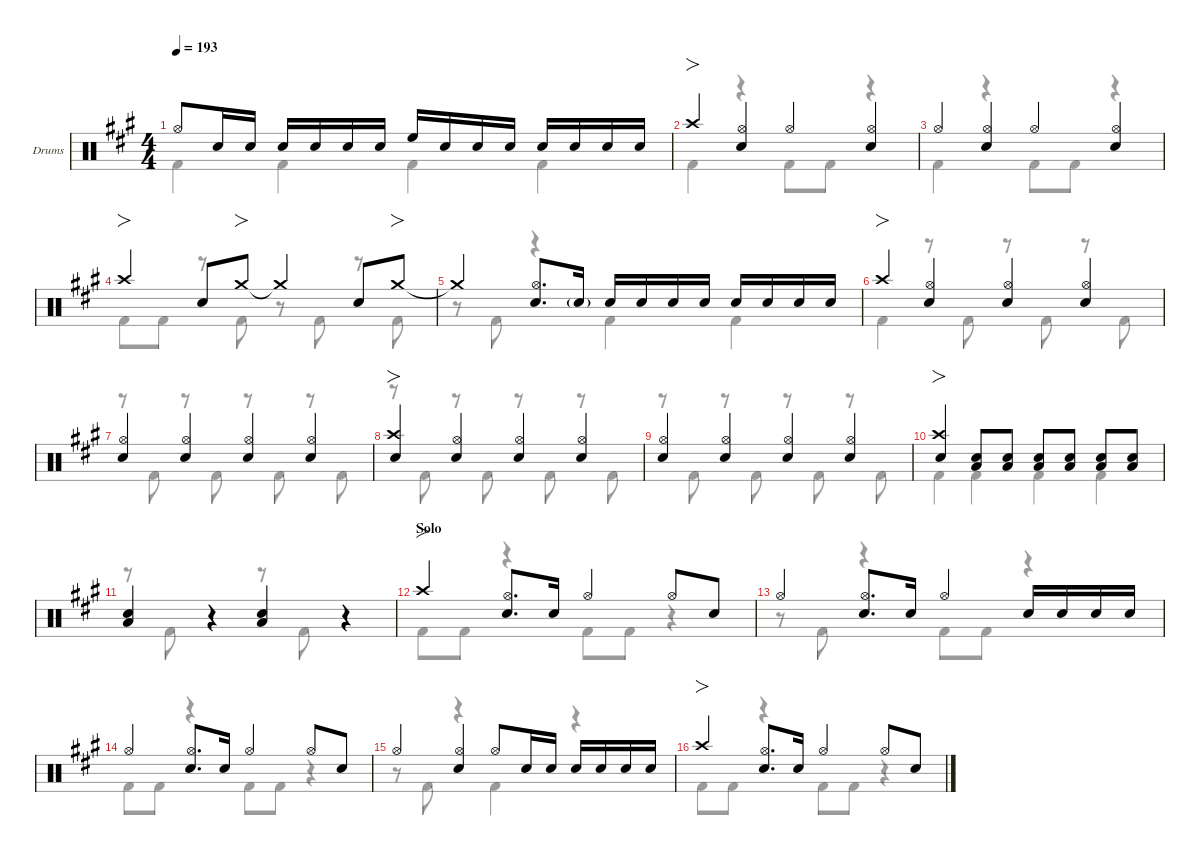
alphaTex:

\defaultSystemsLayout 4
\hideDynamics
\bracketExtendMode nobrackets
\firstSystemTrackNameOrientation horizontal
\track ("Drums" "Drums") {defaultSystemsLayout 4 instrument percussion}
\staff {score}
\articulation defaults
\voice
\ts (4 4)
\tempo 193
\clef neutral
\scale
0.244132
\ks a "Hi-Hat (open)"{acc forcenatural}.8{dy f beam Up} "Snare (hit) 2"{acc forcenatural}.16{beam Up beam merge} "Snare (hit) 2"{acc forcenatural}.16{beam Up beam split} "Snare (hit) 2"{acc forcenatural}.16{beam Up beam merge} "Snare (hit) 2"{acc forcenatural}.16{beam Up beam merge} "Snare (hit) 2"{acc forcenatural}.16{beam Up beam merge} "Snare (hit) 2"{acc forcenatural}.16{beam Up beam split} "High Floor Tom (hit)"{acc forcenatural}.16{beam Up} "Snare (hit) 2"{acc forcenatural}.16{beam Up} "Snare (hit) 2"{acc forcenatural}.16{beam Up} "Snare (hit) 2"{acc forcenatural}.16{beam Up beam split} "Snare (hit) 2"{acc forcenatural}.16{beam Up beam merge} "Snare (hit) 2"{acc forcenatural}.16{beam Up beam merge} "Snare (hit) 2"{acc forcenatural}.16{beam Up beam merge} "Snare (hit) 2"{acc forcenatural}.16{beam Up beam split}
|
\scale
0.267605 "Crash high (hit)"{acc forcenatural}.4{fo beam Up} ("Hi-Hat (open)"{acc forcenatural} "Snare (hit) 2"{acc forcenatural}).4{beam Up} "Hi-Hat (open)"{acc forcenatural}.4{beam Up} ("Hi-Hat (open)"{acc forcenatural} "Snare (hit) 2"{acc forcenatural}).4{beam Up} |
\scale
0.244132 "Hi-Hat (open)"{acc forcenatural}.4{beam Up} ("Hi-Hat (open)"{acc forcenatural} "Snare (hit) 2"{acc forcenatural}).4{beam Up} "Hi-Hat (open)"{acc forcenatural}.4{beam Up} ("Hi-Hat (open)"{acc forcenatural} "Snare (hit) 2"{acc forcenatural}).4{beam Up} |
\scale
0.244132 "Crash high (hit)"{acc forcenatural}.4{fo beam Up} "Snare (hit) 2"{acc forcenatural}.8{beam Up} "Crash medium (hit)"{acc forcenatural}.8{fo beam Up} "Crash medium (hit)"{t acc forcenatural}.4{beam Up} "Snare (hit) 2"{acc forcenatural}.8{beam Up} "Crash medium (hit)"{acc forcenatural}.8{fo beam Up} |
\scale
0.244132 "Crash medium (hit)"{t acc forcenatural}.4{beam Up} ("Snare (hit) 2"{acc forcenatural} "Hi-Hat (open)"{acc forcenatural}).8{d beam Up} "Snare (hit) 2"{g acc forcenatural}.16{dy mf beam Up} "Snare (hit) 2"{acc forcenatural}.16{dy f beam Up beam merge} "Snare (hit) 2"{acc forcenatural}.16{beam Up beam merge} "Snare (hit) 2"{acc forcenatural}.16{beam Up beam merge} "Snare (hit) 2"{acc forcenatural}.16{beam Up beam split} "Snare (hit) 2"{acc forcenatural}.16{beam Up beam merge} "Snare (hit) 2"{acc forcenatural}.16{beam Up beam merge} "Snare (hit) 2"{acc forcenatural}.16{beam Up beam merge} "Snare (hit) 2"{acc forcenatural}.16{beam Up beam split} |
\scale
0.267605 "Crash high (hit)"{acc forcenatural}.4{fo beam Up} ("Snare (hit) 2"{acc forcenatural} "Hi-Hat (open)"{acc forcenatural}).4{beam Up} ("Snare (hit) 2"{acc forcenatural} "Hi-Hat (open)"{acc forcenatural}).4{beam Up} ("Snare (hit) 2"{acc forcenatural} "Hi-Hat (open)"{acc forcenatural}).4{beam Up} |
\scale
0.244132 ("Snare (hit) 2"{acc forcenatural} "Hi-Hat (open)"{acc forcenatural}).4{beam Up} ("Snare (hit) 2"{acc forcenatural} "Hi-Hat (open)"{acc forcenatural}).4{beam Up} ("Snare (hit) 2"{acc forcenatural} "Hi-Hat (open)"{acc forcenatural}).4{beam Up} ("Snare (hit) 2"{acc forcenatural} "Hi-Hat (open)"{acc forcenatural}).4{beam Up} |
\scale
0.244132 ("Crash high (hit)"{acc forcenatural} "Snare (hit) 2"{acc forcenatural}).4{fo beam Up} ("Snare (hit) 2"{acc forcenatural} "Hi-Hat (open)"{acc forcenatural}).4{beam Up} ("Snare (hit) 2"{acc forcenatural} "Hi-Hat (open)"{acc forcenatural}).4{beam Up} ("Snare (hit) 2"{acc forcenatural} "Hi-Hat (open)"{acc forcenatural}).4{beam Up} |
\scale
0.244132 ("Snare (hit) 2"{acc forcenatural} "Hi-Hat (open)"{acc forcenatural}).4{beam Up} ("Snare (hit) 2"{acc forcenatural} "Hi-Hat (open)"{acc forcenatural}).4{beam Up} ("Snare (hit) 2"{acc forcenatural} "Hi-Hat (open)"{acc forcenatural}).4{beam Up} ("Snare (hit) 2"{acc forcenatural} "Hi-Hat (open)"{acc forcenatural}).4{beam Up} |
\scale
0.511737 ("Crash high (hit)"{acc forcenatural} "Snare (hit) 2"{acc forcenatural}).4{fo beam Up} ("Snare (hit) 2"{acc forcenatural} "Low Tom (hit)"{acc forcenatural}).8{beam Up} ("Snare (hit) 2"{acc forcenatural} "Low Tom (hit)"{acc forcenatural}).8{beam Up} ("Snare (hit) 2"{acc forcenatural} "Low Tom (hit)"{acc forcenatural}).8{beam Up} ("Snare (hit) 2"{acc forcenatural} "Low Tom (hit)"{acc forcenatural}).8{beam Up} ("Snare (hit) 2"{acc forcenatural} "Low Tom (hit)"{acc forcenatural}).8{beam Up} ("Snare (hit) 2"{acc forcenatural} "Low Tom (hit)"{acc forcenatural}).8{beam Up} |
\scale
0.488263 ("Low Tom (hit)"{acc forcenatural} "Snare (hit) 2"{acc forcenatural}).4{beam Up} r.4{beam Up} ("Low Tom (hit)"{acc forcenatural} "Snare (hit) 2"{acc forcenatural}).4{beam Up} r.4{beam Up} |
\section ("" "Solo")
\scale
0.267605 "Crash high (hit)"{acc forcenatural}.4{fo beam Up} ("Hi-Hat (open)"{acc forcenatural} "Snare (hit) 2"{acc forcenatural}).8{d beam Up} "Snare (hit) 2"{acc forcenatural}.16{beam Up} "Hi-Hat (open)"{acc forcenatural}.4{beam Up} "Hi-Hat (open)"{acc forcenatural}.8{beam Up} "Snare (hit) 2"{acc forcenatural}.8{beam Up} |
\scale
0.244132 "Hi-Hat (open)"{acc forcenatural}.4{beam Up} ("Hi-Hat (open)"{acc forcenatural} "Snare (hit) 2"{acc forcenatural}).8{d beam Up} "Snare (hit) 2"{acc forcenatural}.16{beam Up} "Hi-Hat (open)"{acc forcenatural}.4{beam Up} "Snare (hit) 2"{acc forcenatural}.16{beam Up} "Snare (hit) 2"{acc forcenatural}.16{dy mf beam Up} "Snare (hit) 2"{acc forcenatural}.16{dy f beam Up} "Snare (hit) 2"{acc forcenatural}.16{dy mf beam Up} |
\scale
0.244132 "Hi-Hat (open)"{acc forcenatural}.4{dy f beam Up} ("Hi-Hat (open)"{acc forcenatural} "Snare (hit) 2"{acc forcenatural}).8{d beam Up} "Snare (hit) 2"{acc forcenatural}.16{beam Up} "Hi-Hat (open)"{acc forcenatural}.4{beam Up} "Hi-Hat (open)"{acc forcenatural}.8{beam Up} "Snare (hit) 2"{acc forcenatural}.8{beam Up} |
\scale
0.244132 "Hi-Hat (open)"{acc forcenatural}.4{beam Up} ("Hi-Hat (open)"{acc forcenatural} "Snare (hit) 2"{acc forcenatural}).4{beam Up} "Hi-Hat (open)"{acc forcenatural}.8{beam Up} "Snare (hit) 2"{acc forcenatural}.16{beam Up} "Snare (hit) 2"{acc forcenatural}.16{dy mf beam Up beam split} "Snare (hit) 2"{acc forcenatural}.16{dy f beam Up} "Snare (hit) 2"{acc forcenatural}.16{dy mf beam Up} "Snare (hit) 2"{acc forcenatural}.16{dy f beam Up} "Snare (hit) 2"{acc forcenatural}.16{dy mf beam Up} |
\scale
0.267605 "Crash high (hit)"{acc forcenatural}.4{fo dy f beam Up} ("Hi-Hat (open)"{acc forcenatural} "Snare (hit) 2"{acc forcenatural}).8{d beam Up} "Snare (hit) 2"{acc forcenatural}.16{beam Up} "Hi-Hat (open)"{acc forcenatural}.4{beam Up} "Hi-Hat (open)"{acc forcenatural}.8{beam Up} "Snare (hit) 2"{acc forcenatural}.8{beam Up}
\voice
\clef neutral
\ottava regular
\simile none
\scale
0.244132
\ks a "Kick (hit) 2"{acc forcenatural}.4{dy f beam Down} "Kick (hit) 2"{acc forcenatural}.4{beam Down} "Kick (hit) 2"{acc forcenatural}.4{beam Down} "Kick (hit) 2"{acc forcenatural}.4{beam Down}
|
\scale
0.267605 "Kick (hit) 2"{acc forcenatural}.4{beam Down} r.4{beam Down} "Kick (hit) 2"{acc forcenatural}.8{beam Down} "Kick (hit) 2"{acc forcenatural}.8{beam Down} r.4{beam Down} |
\scale
0.244132 "Kick (hit) 2"{acc forcenatural}.4{beam Down} r.4{beam Down} "Kick (hit) 2"{acc forcenatural}.8{beam Down} "Kick (hit) 2"{acc forcenatural}.8{beam Down} r.4{beam Down} |
\scale
0.244132 "Kick (hit) 2"{acc forcenatural}.8{beam Down} "Kick (hit) 2"{acc forcenatural}.8{beam Down} r.8{beam Down} "Kick (hit) 2"{acc forcenatural}.8{beam Down} r.8{beam Down} "Kick (hit) 2"{acc forcenatural}.8{beam Down} r.8{beam Down} "Kick (hit) 2"{acc forcenatural}.8{beam Down} |
\scale
0.244132 r.8{beam Down} "Kick (hit) 2"{acc forcenatural}.8{beam Down} r.4{beam Down} "Kick (hit) 2"{acc forcenatural}.4{beam Down} "Kick (hit) 2"{acc forcenatural}.4{beam Down} |
\scale
0.267605 "Kick (hit) 2"{acc forcenatural}.4{beam Down} r.8{beam Down} "Kick (hit) 2"{acc forcenatural}.8{beam Down} r.8{beam Down} "Kick (hit) 2"{acc forcenatural}.8{beam Down} r.8{beam Down} "Kick (hit) 2"{acc forcenatural}.8{beam Down} |
\scale
0.244132 r.8{beam Down} "Kick (hit) 2"{acc forcenatural}.8{beam Down} r.8{beam Down} "Kick (hit) 2"{acc forcenatural}.8{beam Down} r.8{beam Down} "Kick (hit) 2"{acc forcenatural}.8{beam Down} r.8{beam Down} "Kick (hit) 2"{acc forcenatural}.8{beam Down} |
\scale
0.244132 r.8{beam Down} "Kick (hit) 2"{acc forcenatural}.8{beam Down} r.8{beam Down} "Kick (hit) 2"{acc forcenatural}.8{beam Down} r.8{beam Down} "Kick (hit) 2"{acc forcenatural}.8{beam Down} r.8{beam Down} "Kick (hit) 2"{acc forcenatural}.8{beam Down} |
\scale
0.244132 r.8{beam Down} "Kick (hit) 2"{acc forcenatural}.8{beam Down} r.8{beam Down} "Kick (hit) 2"{acc forcenatural}.8{beam Down} r.8{beam Down} "Kick (hit) 2"{acc forcenatural}.8{beam Down} r.8{beam Down} "Kick (hit) 2"{acc forcenatural}.8{beam Down} |
\scale
0.511737 "Kick (hit) 2"{acc forcenatural}.4{beam Down} "Kick (hit) 2"{acc forcenatural}.4{beam Down} "Kick (hit) 2"{acc forcenatural}.4{beam Down} "Kick (hit) 2"{acc forcenatural}.4{beam Down} |
\scale
0.488263 r.8{beam Down} "Kick (hit) 2"{acc forcenatural}.8{beam Down} r.4{beam Down} r.8{beam Down} "Kick (hit) 2"{acc forcenatural}.8{beam Down} r.4{beam Down} |
\scale
0.267605 "Kick (hit) 2"{acc forcenatural}.8{beam Down} "Kick (hit) 2"{acc forcenatural}.8{beam Down} r.4{beam Down} "Kick (hit) 2"{acc forcenatural}.8{beam Down} "Kick (hit) 2"{acc forcenatural}.8{beam Down} r.4{beam Down} |
\scale
0.244132 r.8{beam Down} "Kick (hit) 2"{acc forcenatural}.8{beam Down} r.4{beam Down} "Kick (hit) 2"{acc forcenatural}.8{beam Down} "Kick (hit) 2"{acc forcenatural}.8{beam Down} r.4{beam Down} |
\scale
0.244132 "Kick (hit) 2"{acc forcenatural}.8{beam Down} "Kick (hit) 2"{acc forcenatural}.8{beam Down} r.4{beam Down} "Kick (hit) 2"{acc forcenatural}.8{beam Down} "Kick (hit) 2"{acc forcenatural}.8{beam Down} r.4{beam Down} |
\scale
0.244132 r.8{beam Down} "Kick (hit) 2"{acc forcenatural}.8{beam Down} r.4{beam Down} "Kick (hit) 2"{acc forcenatural}.4{beam Down} r.4{beam Down} |
\scale
0.267605 "Kick (hit) 2"{acc forcenatural}.8{beam Down} "Kick (hit) 2"{acc forcenatural}.8{beam Down} r.4{beam Down} "Kick (hit) 2"{acc forcenatural}.8{beam Down} "Kick (hit) 2"{acc forcenatural}.8{beam Down} r.4{beam Down}
